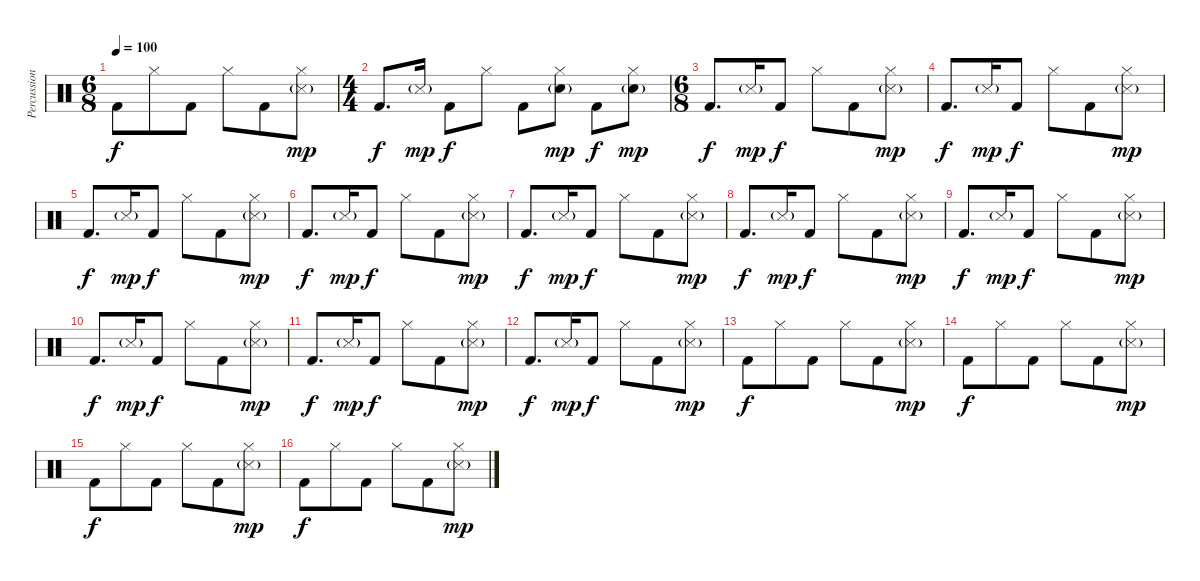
\track ("Percussion" "Percussion") {instrument percussion}
\staff {score}
\articulation defaults
\ts (6 8)
\tempo 100
\clef neutral
\ks c "Kick (hit) 2".8{dy f} "Hi-Hat (closed)".8 "Kick (hit) 2".8 "Hi-Hat (closed)".8 "Kick (hit) 2".8
("Hi-Hat (closed)" "Snare (side stick) 3"{g}).8{dy mp} |
\ts (4 4)
"Kick (hit) 2".8{d dy f} "Snare (side stick) 3"{g}.16{dy mp} "Kick (hit) 2".8{dy f} "Hi-Hat (closed)".8 "Kick (hit) 2".8 ("Hi-Hat (closed)" "Snare (hit) 2"{g}).8{dy mp} "Kick (hit) 2".8{dy f} ("Hi-Hat (closed)" "Snare (hit) 2"{g}).8{dy mp} |
\ts (6 8)
"Kick (hit) 2".8{d dy f} "Snare (side stick) 3"{g}.16{dy mp} "Kick (hit) 2".8{dy f} "Hi-Hat (closed)".8 "Kick (hit) 2".8 ("Hi-Hat (closed)" "Snare (side stick) 3"{g}).8{dy mp} |
"Kick (hit) 2".8{d dy f} "Snare (side stick) 3"{g}.16{dy mp} "Kick (hit) 2".8{dy f} "Hi-Hat (closed)".8 "Kick (hit) 2".8 ("Hi-Hat (closed)" "Snare (side stick) 3"{g}).8{dy mp} |
"Kick (hit) 2".8{d dy f} "Snare (side stick) 3"{g}.16{dy mp} "Kick (hit) 2".8{dy f} "Hi-Hat (closed)".8 "Kick (hit) 2".8 ("Hi-Hat (closed)" "Snare (side stick) 3"{g}).8{dy mp} |
"Kick (hit) 2".8{d dy f} "Snare (side stick) 3"{g}.16{dy mp} "Kick (hit) 2".8{dy f} "Hi-Hat (closed)".8 "Kick (hit) 2".8 ("Hi-Hat (closed)" "Snare (side stick) 3"{g}).8{dy mp} |
"Kick (hit) 2".8{d dy f} "Snare (side stick) 3"{g}.16{dy mp} "Kick (hit) 2".8{dy f} "Hi-Hat (closed)".8 "Kick (hit) 2".8 ("Hi-Hat (closed)" "Snare (side stick) 3"{g}).8{dy mp} |
"Kick (hit) 2".8{d dy f} "Snare (side stick) 3"{g}.16{dy mp} "Kick (hit) 2".8{dy f} "Hi-Hat (closed)".8 "Kick (hit) 2".8 ("Hi-Hat (closed)" "Snare (side stick) 3"{g}).8{dy mp} |
"Kick (hit) 2".8{d dy f} "Snare (side stick) 3"{g}.16{dy mp} "Kick (hit) 2".8{dy f} "Hi-Hat (closed)".8 "Kick (hit) 2".8 ("Hi-Hat (closed)" "Snare (side stick) 3"{g}).8{dy mp} |
"Kick (hit) 2".8{d dy f} "Snare (side stick) 3"{g}.16{dy mp} "Kick (hit) 2".8{dy f} "Hi-Hat (closed)".8 "Kick (hit) 2".8 ("Hi-Hat (closed)" "Snare (side stick) 3"{g}).8{dy mp} |
"Kick (hit) 2".8{d dy f} "Snare (side stick) 3"{g}.16{dy mp} "Kick (hit) 2".8{dy f} "Hi-Hat (closed)".8 "Kick (hit) 2".8 ("Hi-Hat (closed)" "Snare (side stick) 3"{g}).8{dy mp} |
"Kick (hit) 2".8{d dy f} "Snare (side stick) 3"{g}.16{dy mp} "Kick (hit) 2".8{dy f} "Hi-Hat (closed)".8 "Kick (hit) 2".8 ("Hi-Hat (closed)" "Snare (side stick) 3"{g}).8{dy mp} |
"Kick (hit) 2".8{dy f} "Hi-Hat (closed)".8 "Kick (hit) 2".8 "Hi-Hat (closed)".8 "Kick (hit) 2".8 ("Hi-Hat (closed)" "Snare (side stick) 3"{g}).8{dy mp} |
"Kick (hit) 2".8{dy f} "Hi-Hat (closed)".8 "Kick (hit) 2".8 "Hi-Hat (closed)".8 "Kick (hit) 2".8 ("Hi-Hat (closed)" "Snare (side stick) 3"{g}).8{dy mp} |
"Kick (hit) 2".8{dy f} "Hi-Hat (closed)".8 "Kick (hit) 2".8 "Hi-Hat (closed)".8 "Kick (hit) 2".8 ("Hi-Hat (closed)" "Snare (side stick) 3"{g}).8{dy mp} |
"Kick (hit) 2".8{dy f} "Hi-Hat (closed)".8 "Kick (hit) 2".8 "Hi-Hat (closed)".8 "Kick (hit) 2".8 ("Hi-Hat (closed)" "Snare (side stick) 3"{g}).8{dy mp}
